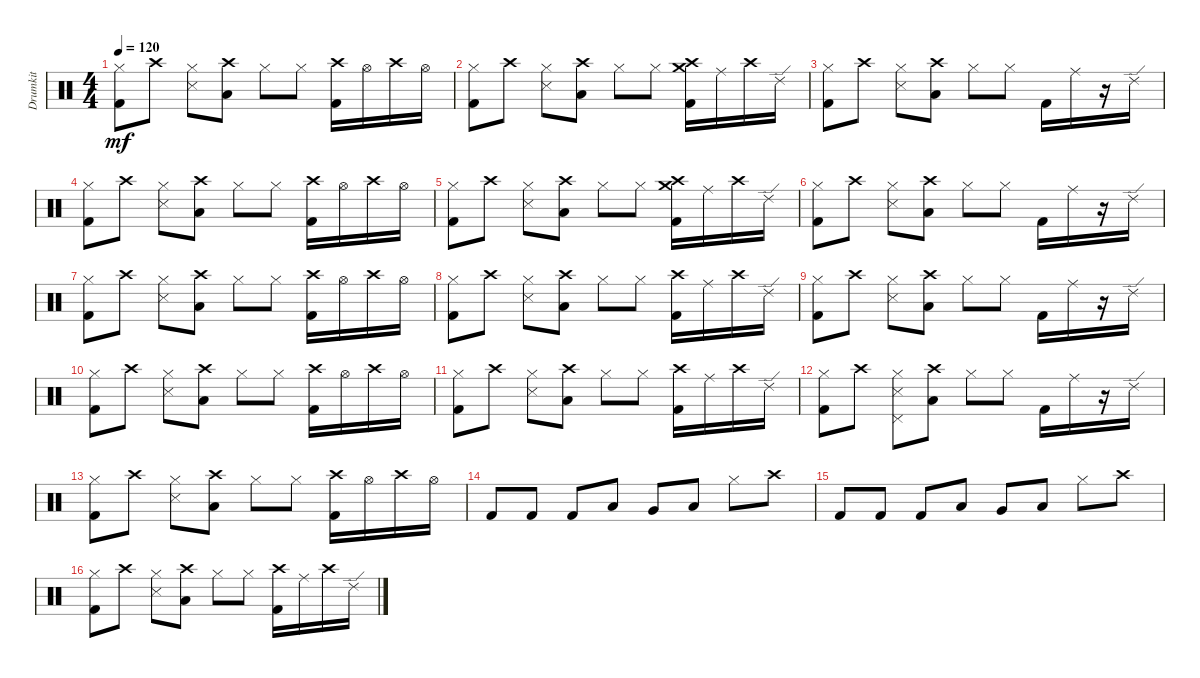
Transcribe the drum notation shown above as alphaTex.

\track ("Drumkit" "Drumkit") {instrument percussion}
\staff {score}
\articulation defaults
\ts (4 4)
\tempo 120
\clef neutral
\ks c
("Hi-Hat (closed)" "Kick (hit) 2").8{dy mf} "Crash high (hit)".8 ("Hi-Hat (closed)" "Snare (side stick) 3").8 ("Crash high (hit)" "Low Floor Tom (hit)").8 "Hi-Hat (closed)".8 "Hi-Hat (closed)".8 ("Crash high (hit)" "Kick (hit) 2").16 "Hi-Hat (open)".16 "Crash high (hit)".16 "Hi-Hat (open)".16 |
("Hi-Hat (closed)" "Kick (hit) 2").8 "Crash high (hit)".8 ("Hi-Hat (closed)" "Snare (side stick) 3").8 ("Crash high (hit)" "Low Floor Tom (hit)").8 "Hi-Hat (closed)".8 "Hi-Hat (closed)".8 ("Crash high (hit)" "Kick (hit) 2" "Crash medium (hit)").16 "Ride (middle)".16 "Crash high (hit)".16 "Ride (edge) 2".16 |
("Hi-Hat (closed)" "Kick (hit) 2").8 "Crash high (hit)".8 ("Hi-Hat (closed)" "Snare (side stick) 3").8 ("Crash high (hit)" "Low Floor Tom (hit)").8 "Hi-Hat (closed)".8 "Hi-Hat (closed)".8 "Kick (hit) 2".16 "Ride (middle)".16 r.16 "Ride (edge) 2".16 |
("Hi-Hat (closed)" "Kick (hit) 2").8 "Crash high (hit)".8 ("Hi-Hat (closed)" "Snare (side stick) 3").8 ("Crash high (hit)" "Low Floor Tom (hit)").8 "Hi-Hat (closed)".8 "Hi-Hat (closed)".8 ("Crash high (hit)" "Kick (hit) 2").16 "Hi-Hat (open)".16 "Crash high (hit)".16 "Hi-Hat (open)".16 |
("Hi-Hat (closed)" "Kick (hit) 2").8 "Crash high (hit)".8 ("Hi-Hat (closed)" "Snare (side stick) 3").8 ("Crash high (hit)" "Low Floor Tom (hit)").8 "Hi-Hat (closed)".8 "Hi-Hat (closed)".8 ("Crash high (hit)" "Kick (hit) 2" "Crash medium (hit)").16 "Ride (middle)".16 "Crash high (hit)".16 "Ride (edge) 2".16 |
("Hi-Hat (closed)" "Kick (hit) 2").8 "Crash high (hit)".8 ("Hi-Hat (closed)" "Snare (side stick) 3").8 ("Crash high (hit)" "Low Floor Tom (hit)").8 "Hi-Hat (closed)".8 "Hi-Hat (closed)".8 "Kick (hit) 2".16 "Ride (middle)".16 r.16 "Ride (edge) 2".16 |
("Hi-Hat (closed)" "Kick (hit) 2").8 "Crash high (hit)".8 ("Hi-Hat (closed)" "Snare (side stick) 3").8 ("Crash high (hit)" "Low Floor Tom (hit)").8 "Hi-Hat (closed)".8 "Hi-Hat (closed)".8 ("Crash high (hit)" "Kick (hit) 2").16 "Hi-Hat (open)".16 "Crash high (hit)".16 "Hi-Hat (open)".16 |
("Hi-Hat (closed)" "Kick (hit) 2").8 "Crash high (hit)".8 ("Hi-Hat (closed)" "Snare (side stick) 3").8 ("Crash high (hit)" "Low Floor Tom (hit)").8 "Hi-Hat (closed)".8 "Hi-Hat (closed)".8 ("Crash high (hit)" "Kick (hit) 2").16 "Ride (middle)".16 "Crash high (hit)".16 "Ride (edge) 2".16 |
("Hi-Hat (closed)" "Kick (hit) 2").8 "Crash high (hit)".8 ("Hi-Hat (closed)" "Snare (side stick) 3").8 ("Crash high (hit)" "Low Floor Tom (hit)").8 "Hi-Hat (closed)".8 "Hi-Hat (closed)".8 "Kick (hit) 2".16 "Ride (middle)".16 r.16 "Ride (edge) 2".16 |
("Hi-Hat (closed)" "Kick (hit) 2").8 "Crash high (hit)".8 ("Hi-Hat (closed)" "Snare (side stick) 3").8 ("Crash high (hit)" "Low Floor Tom (hit)").8 "Hi-Hat (closed)".8 "Hi-Hat (closed)".8 ("Crash high (hit)" "Kick (hit) 2").16 "Hi-Hat (open)".16 "Crash high (hit)".16 "Hi-Hat (open)".16 |
("Hi-Hat (closed)" "Kick (hit) 2").8 "Crash high (hit)".8 ("Hi-Hat (closed)" "Snare (side stick) 3").8 ("Crash high (hit)" "Low Floor Tom (hit)").8 "Hi-Hat (closed)".8 "Hi-Hat (closed)".8 ("Crash high (hit)" "Kick (hit) 2").16 "Ride (middle)".16 "Crash high (hit)".16 "Ride (edge) 2".16 |
("Hi-Hat (closed)" "Kick (hit) 2").8 "Crash high (hit)".8 ("Hi-Hat (closed)" "Snare (side stick) 3" "Pedal Hi-Hat (hit)").8 ("Crash high (hit)" "Low Floor Tom (hit)").8 "Hi-Hat (closed)".8 "Hi-Hat (closed)".8 "Kick (hit) 2".16 "Ride (middle)".16 r.16 "Ride (edge) 2".16 |
("Hi-Hat (closed)" "Kick (hit) 2").8 "Crash high (hit)".8 ("Hi-Hat (closed)" "Snare (side stick) 3").8 ("Crash high (hit)" "Low Floor Tom (hit)").8 "Hi-Hat (closed)".8 "Hi-Hat (closed)".8 ("Crash high (hit)" "Kick (hit) 2").16 "Hi-Hat (open)".16 "Crash high (hit)".16 "Hi-Hat (open)".16 |
"Kick (hit) 2".8 "Kick (hit) 2".8 "Kick (hit) 2".8 "Low Floor Tom (hit)".8 "Very Low Tom (hit)".8 "Low Tom (hit)".8 "Hi-Hat (closed)".8 "Crash high (hit)".8 |
"Kick (hit) 2".8 "Kick (hit) 2".8 "Kick (hit) 2".8 "Low Floor Tom (hit)".8 "Very Low Tom (hit)".8 "Low Tom (hit)".8 "Hi-Hat (closed)".8 "Crash high (hit)".8 |
("Hi-Hat (closed)" "Kick (hit) 2").8 "Crash high (hit)".8 ("Hi-Hat (closed)" "Snare (side stick) 3").8 ("Crash high (hit)" "Low Floor Tom (hit)").8 "Hi-Hat (closed)".8 "Hi-Hat (closed)".8 ("Crash high (hit)" "Kick (hit) 2").16 "Ride (middle)".16 "Crash high (hit)".16 "Ride (edge) 2".16
